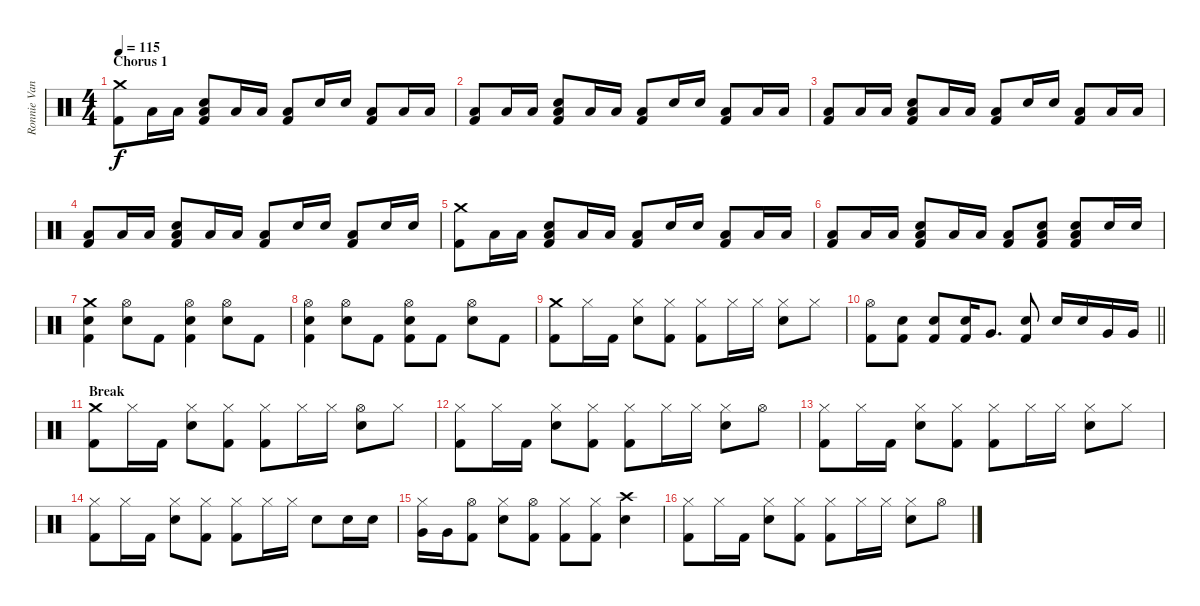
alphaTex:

\track ("Ronnie Vannucci Jr. (Drums)" "Ronnie Van") {instrument percussion}
\staff {score}
\articulation defaults
\ts (4 4)
\section ("" "Chorus 1")
\tempo 115
\clef neutral
\ks c
("Crash medium (hit)" "Kick (hit) 2").8{dy f} "Low Floor Tom (hit)".16 "Low Floor Tom (hit)".16 ("Low Floor Tom (hit)" "Electric Snare (hit)" "Kick (hit) 2").8 "Low Floor Tom (hit)".16 "Low Floor Tom (hit)".16 ("Low Floor Tom (hit)" "Kick (hit) 2").8 "Electric Snare (hit)".16 "Electric Snare (hit)".16 ("Low Floor Tom (hit)" "Kick (hit) 2").8 "Low Floor Tom (hit)".16 "Low Floor Tom (hit)".16 |
("Low Floor Tom (hit)" "Kick (hit) 2").8 "Low Floor Tom (hit)".16 "Low Floor Tom (hit)".16 ("Low Floor Tom (hit)" "Electric Snare (hit)" "Kick (hit) 2").8 "Low Floor Tom (hit)".16 "Low Floor Tom (hit)".16 ("Low Floor Tom (hit)" "Kick (hit) 2").8 "Electric Snare (hit)".16 "Electric Snare (hit)".16 ("Low Floor Tom (hit)" "Kick (hit) 2").8 "Low Floor Tom (hit)".16 "Low Floor Tom (hit)".16 |
("Low Floor Tom (hit)" "Kick (hit) 2").8 "Low Floor Tom (hit)".16 "Low Floor Tom (hit)".16 ("Low Floor Tom (hit)" "Electric Snare (hit)" "Kick (hit) 2").8 "Low Floor Tom (hit)".16 "Low Floor Tom (hit)".16 ("Low Floor Tom (hit)" "Kick (hit) 2").8 "Electric Snare (hit)".16 "Electric Snare (hit)".16 ("Low Floor Tom (hit)" "Kick (hit) 2").8 "Low Floor Tom (hit)".16 "Low Floor Tom (hit)".16 |
("Low Floor Tom (hit)" "Kick (hit) 2").8 "Low Floor Tom (hit)".16 "Low Floor Tom (hit)".16 ("Low Floor Tom (hit)" "Electric Snare (hit)" "Kick (hit) 2").8 "Low Floor Tom (hit)".16 "Low Floor Tom (hit)".16 ("Low Floor Tom (hit)" "Kick (hit) 2").8 "Electric Snare (hit)".16 "Electric Snare (hit)".16 ("Low Floor Tom (hit)" "Kick (hit) 2").8 "Electric Snare (hit)".16 "Electric Snare (hit)".16 |
("Crash medium (hit)" "Kick (hit) 2").8 "Low Floor Tom (hit)".16 "Low Floor Tom (hit)".16 ("Low Floor Tom (hit)" "Electric Snare (hit)" "Kick (hit) 2").8 "Low Floor Tom (hit)".16 "Low Floor Tom (hit)".16 ("Low Floor Tom (hit)" "Kick (hit) 2").8 "Electric Snare (hit)".16 "Electric Snare (hit)".16 ("Low Floor Tom (hit)" "Kick (hit) 2").8 "Low Floor Tom (hit)".16 "Low Floor Tom (hit)".16 |
("Low Floor Tom (hit)" "Kick (hit) 2").8 "Low Floor Tom (hit)".16 "Low Floor Tom (hit)".16 ("Low Floor Tom (hit)" "Electric Snare (hit)" "Kick (hit) 2").8 "Low Floor Tom (hit)".16 "Low Floor Tom (hit)".16 ("Low Floor Tom (hit)" "Kick (hit) 2").8 ("Low Floor Tom (hit)" "Electric Snare (hit)" "Kick (hit) 2").8 ("Low Floor Tom (hit)" "Electric Snare (hit)" "Kick (hit) 2").8 "Electric Snare (hit)".16 "Electric Snare (hit)".16 |
("Crash medium (hit)" "Electric Snare (hit)" "Kick (hit) 2").4 ("Hi-Hat (open)" "Electric Snare (hit)").8 "Kick (hit) 2".8 ("Hi-Hat (open)" "Electric Snare (hit)" "Kick (hit) 2").4 ("Hi-Hat (open)" "Electric Snare (hit)").8 "Kick (hit) 2".8 |
("Hi-Hat (open)" "Electric Snare (hit)" "Kick (hit) 2").4 ("Hi-Hat (open)" "Electric Snare (hit)").8 "Kick (hit) 2".8 ("Hi-Hat (open)" "Electric Snare (hit)" "Kick (hit) 2").8 "Kick (hit) 2".8 ("Hi-Hat (open)" "Electric Snare (hit)").8 "Kick (hit) 2".8 |
("Crash medium (hit)" "Kick (hit) 2").8 "Hi-Hat (closed)".16 "Kick (hit) 2".16 ("Hi-Hat (closed)" "Electric Snare (hit)").8 ("Hi-Hat (closed)" "Kick (hit) 2").8 ("Hi-Hat (closed)" "Kick (hit) 2").8 "Hi-Hat (closed)".16 "Hi-Hat (closed)".16 ("Hi-Hat (closed)" "Electric Snare (hit)").8 "Hi-Hat (closed)".8 |
\barLineRight lightlight
("Hi-Hat (open)" "Kick (hit) 2").8 ("Electric Snare (hit)" "Kick (hit) 2").8 ("Electric Snare (hit)" "Kick (hit) 2").8 ("Electric Snare (hit)" "Kick (hit) 2").16 "Very Low Tom (hit)".8{d} ("Electric Snare (hit)" "Kick (hit) 2").8 "Electric Snare (hit)".16 "Electric Snare (hit)".16 "Very Low Tom (hit)".16 "Very Low Tom (hit)".16 |
\section ("" "Break")
("Crash medium (hit)" "Kick (hit) 2").8 "Hi-Hat (closed)".16 "Kick (hit) 2".16 ("Hi-Hat (closed)" "Electric Snare (hit)").8 ("Hi-Hat (closed)" "Kick (hit) 2").8 ("Hi-Hat (closed)" "Kick (hit) 2").8 "Hi-Hat (closed)".16 "Hi-Hat (closed)".16 ("Hi-Hat (open)" "Electric Snare (hit)").8 "Hi-Hat (closed)".8 |
("Hi-Hat (closed)" "Kick (hit) 2").8 "Hi-Hat (closed)".16 "Kick (hit) 2".16 ("Hi-Hat (closed)" "Electric Snare (hit)").8 ("Hi-Hat (closed)" "Kick (hit) 2").8 ("Hi-Hat (closed)" "Kick (hit) 2").8 "Hi-Hat (closed)".16 "Hi-Hat (closed)".16 ("Hi-Hat (closed)" "Electric Snare (hit)").8 "Hi-Hat (open)".8 |
("Hi-Hat (closed)" "Kick (hit) 2").8 "Hi-Hat (closed)".16 "Kick (hit) 2".16 ("Hi-Hat (closed)" "Electric Snare (hit)").8 ("Hi-Hat (closed)" "Kick (hit) 2").8 ("Hi-Hat (closed)" "Kick (hit) 2").8 "Hi-Hat (closed)".16 "Hi-Hat (closed)".16 ("Hi-Hat (closed)" "Electric Snare (hit)").8 "Hi-Hat (closed)".8 |
("Hi-Hat (closed)" "Kick (hit) 2").8 "Hi-Hat (closed)".16 "Kick (hit) 2".16 ("Hi-Hat (closed)" "Electric Snare (hit)").8 ("Hi-Hat (closed)" "Kick (hit) 2").8 ("Hi-Hat (closed)" "Kick (hit) 2").8 "Hi-Hat (closed)".16 "Hi-Hat (closed)".16 "Electric Snare (hit)".8 "Electric Snare (hit)".16 "Electric Snare (hit)".16 |
("Hi-Hat (closed)" "Very Low Tom (hit)").16 "Very Low Tom (hit)".16 ("Hi-Hat (open)" "Kick (hit) 2").8 ("Hi-Hat (closed)" "Electric Snare (hit)").8 ("Hi-Hat (open)" "Kick (hit) 2").8 ("Hi-Hat (closed)" "Kick (hit) 2").8 ("Hi-Hat (closed)" "Kick (hit) 2").8 ("Crash high (hit)" "Electric Snare (hit)").4 |
("Hi-Hat (closed)" "Kick (hit) 2").8 "Hi-Hat (closed)".16 "Kick (hit) 2".16 ("Hi-Hat (closed)" "Electric Snare (hit)").8 ("Hi-Hat (closed)" "Kick (hit) 2").8 ("Hi-Hat (closed)" "Kick (hit) 2").8 "Hi-Hat (closed)".16 "Hi-Hat (closed)".16 ("Hi-Hat (closed)" "Electric Snare (hit)").8 "Hi-Hat (open)".8
